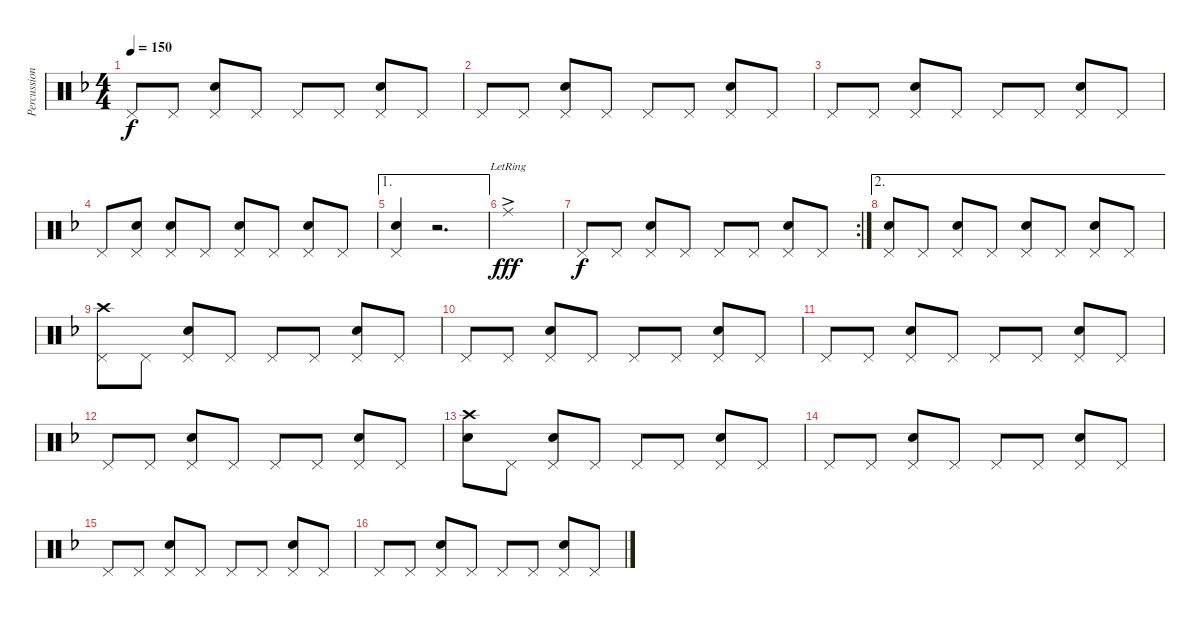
\track ("Percussions" "Percussion") {instrument percussion}
\staff {score}
\articulation defaults
\ts (4 4)
\tempo 150
\clef neutral
\ks f "Pedal Hi-Hat (hit)".8{dy f} "Pedal Hi-Hat (hit)".8
("Pedal Hi-Hat (hit)" "Snare (hit) 2").8 "Pedal Hi-Hat (hit)".8 "Pedal Hi-Hat (hit)".8 "Pedal Hi-Hat (hit)".8 ("Pedal Hi-Hat (hit)" "Snare (hit) 2").8 "Pedal Hi-Hat (hit)".8 |
"Pedal Hi-Hat (hit)".8 "Pedal Hi-Hat (hit)".8 ("Pedal Hi-Hat (hit)" "Snare (hit) 2").8 "Pedal Hi-Hat (hit)".8 "Pedal Hi-Hat (hit)".8 "Pedal Hi-Hat (hit)".8 ("Pedal Hi-Hat (hit)" "Snare (hit) 2").8 "Pedal Hi-Hat (hit)".8 |
"Pedal Hi-Hat (hit)".8 "Pedal Hi-Hat (hit)".8 ("Pedal Hi-Hat (hit)" "Snare (hit) 2").8 "Pedal Hi-Hat (hit)".8 "Pedal Hi-Hat (hit)".8 "Pedal Hi-Hat (hit)".8 ("Pedal Hi-Hat (hit)" "Snare (hit) 2").8 "Pedal Hi-Hat (hit)".8 |
"Pedal Hi-Hat (hit)".8 ("Pedal Hi-Hat (hit)" "Snare (hit) 2").8 ("Pedal Hi-Hat (hit)" "Snare (hit) 2").8 "Pedal Hi-Hat (hit)".8 ("Pedal Hi-Hat (hit)" "Snare (hit) 2").8 "Pedal Hi-Hat (hit)".8 ("Pedal Hi-Hat (hit)" "Snare (hit) 2").8 "Pedal Hi-Hat (hit)".8 |
\ae 1
("Pedal Hi-Hat (hit)" "Snare (hit) 2").4 r.2{d} |
"Ride (middle)"{ac lr}.1{dy fff} |
\rc 2 "Pedal Hi-Hat (hit)".8{dy f} "Pedal Hi-Hat (hit)".8
("Pedal Hi-Hat (hit)" "Snare (hit) 2").8 "Pedal Hi-Hat (hit)".8 "Pedal Hi-Hat (hit)".8 "Pedal Hi-Hat (hit)".8 ("Pedal Hi-Hat (hit)" "Snare (hit) 2").8 "Pedal Hi-Hat (hit)".8 |
\ae 2
("Pedal Hi-Hat (hit)" "Snare (hit) 2").8 "Pedal Hi-Hat (hit)".8 ("Pedal Hi-Hat (hit)" "Snare (hit) 2").8 "Pedal Hi-Hat (hit)".8 ("Pedal Hi-Hat (hit)" "Snare (hit) 2").8 "Pedal Hi-Hat (hit)".8 ("Pedal Hi-Hat (hit)" "Snare (hit) 2").8 "Pedal Hi-Hat (hit)".8 |
("Crash high (hit)" "Pedal Hi-Hat (hit)").8 "Pedal Hi-Hat (hit)".8 ("Pedal Hi-Hat (hit)" "Snare (hit) 2").8 "Pedal Hi-Hat (hit)".8 "Pedal Hi-Hat (hit)".8 "Pedal Hi-Hat (hit)".8 ("Pedal Hi-Hat (hit)" "Snare (hit) 2").8 "Pedal Hi-Hat (hit)".8 |
"Pedal Hi-Hat (hit)".8 "Pedal Hi-Hat (hit)".8 ("Pedal Hi-Hat (hit)" "Snare (hit) 2").8 "Pedal Hi-Hat (hit)".8 "Pedal Hi-Hat (hit)".8 "Pedal Hi-Hat (hit)".8 ("Pedal Hi-Hat (hit)" "Snare (hit) 2").8 "Pedal Hi-Hat (hit)".8 |
"Pedal Hi-Hat (hit)".8 "Pedal Hi-Hat (hit)".8 ("Pedal Hi-Hat (hit)" "Snare (hit) 2").8 "Pedal Hi-Hat (hit)".8 "Pedal Hi-Hat (hit)".8 "Pedal Hi-Hat (hit)".8 ("Pedal Hi-Hat (hit)" "Snare (hit) 2").8 "Pedal Hi-Hat (hit)".8 |
"Pedal Hi-Hat (hit)".8 "Pedal Hi-Hat (hit)".8 ("Pedal Hi-Hat (hit)" "Snare (hit) 2").8 "Pedal Hi-Hat (hit)".8 "Pedal Hi-Hat (hit)".8 "Pedal Hi-Hat (hit)".8 ("Pedal Hi-Hat (hit)" "Snare (hit) 2").8 "Pedal Hi-Hat (hit)".8 |
("Crash high (hit)" "Snare (hit) 2").8 "Pedal Hi-Hat (hit)".8 ("Pedal Hi-Hat (hit)" "Snare (hit) 2").8 "Pedal Hi-Hat (hit)".8 "Pedal Hi-Hat (hit)".8 "Pedal Hi-Hat (hit)".8 ("Pedal Hi-Hat (hit)" "Snare (hit) 2").8 "Pedal Hi-Hat (hit)".8 |
"Pedal Hi-Hat (hit)".8 "Pedal Hi-Hat (hit)".8 ("Pedal Hi-Hat (hit)" "Snare (hit) 2").8 "Pedal Hi-Hat (hit)".8 "Pedal Hi-Hat (hit)".8 "Pedal Hi-Hat (hit)".8 ("Pedal Hi-Hat (hit)" "Snare (hit) 2").8 "Pedal Hi-Hat (hit)".8 |
"Pedal Hi-Hat (hit)".8 "Pedal Hi-Hat (hit)".8 ("Pedal Hi-Hat (hit)" "Snare (hit) 2").8 "Pedal Hi-Hat (hit)".8 "Pedal Hi-Hat (hit)".8 "Pedal Hi-Hat (hit)".8 ("Pedal Hi-Hat (hit)" "Snare (hit) 2").8 "Pedal Hi-Hat (hit)".8 |
"Pedal Hi-Hat (hit)".8 "Pedal Hi-Hat (hit)".8 ("Pedal Hi-Hat (hit)" "Snare (hit) 2").8 "Pedal Hi-Hat (hit)".8 "Pedal Hi-Hat (hit)".8 "Pedal Hi-Hat (hit)".8 ("Pedal Hi-Hat (hit)" "Snare (hit) 2").8 "Pedal Hi-Hat (hit)".8
